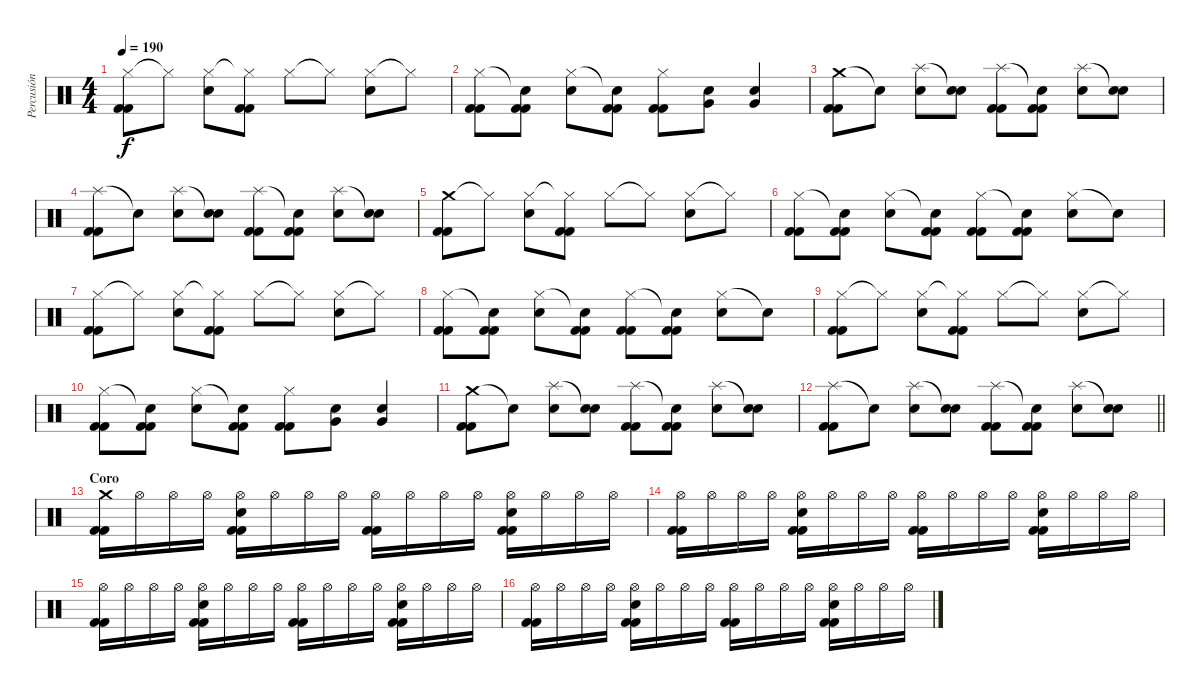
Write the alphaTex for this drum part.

\track ("Percusión" "Percusión") {instrument percussion}
\staff {score}
\articulation defaults
\ts (4 4)
\tempo 190
\clef neutral
\ks c
("Hi-Hat (closed)" "Kick (hit) 2" "Kick (hit) 2").8{dy f} "Hi-Hat (closed)"{t}.8 ("Hi-Hat (closed)" "Electric Snare (hit)").8 ("Hi-Hat (closed)"{t} "Kick (hit) 2" "Kick (hit) 2").8 "Hi-Hat (closed)".8 "Hi-Hat (closed)"{t}.8 ("Hi-Hat (closed)" "Electric Snare (hit)").8 "Hi-Hat (closed)"{t}.8 |
("Hi-Hat (closed)" "Kick (hit) 2" "Kick (hit) 2").8 ("Snare (hit)"{t} "Kick (hit) 2" "Kick (hit) 2").8 ("Hi-Hat (closed)" "Electric Snare (hit)").8 ("Snare (hit)"{t} "Kick (hit) 2" "Kick (hit) 2").8 ("Hi-Hat (closed)" "Kick (hit) 2" "Kick (hit) 2").8 ("Very Low Tom (hit)" "Electric Snare (hit)").8 ("Very Low Tom (hit)" "Electric Snare (hit)").4 |
("Crash medium (hit)" "Kick (hit) 2" "Kick (hit) 2").8 "Snare (hit)"{t}.8 ("Splash (hit)" "Electric Snare (hit)").8 ("Snare (hit)"{t} "Electric Snare (hit)").8 ("Splash (hit)" "Kick (hit) 2" "Kick (hit) 2").8 ("Snare (hit)"{t} "Kick (hit) 2" "Kick (hit) 2").8 ("Splash (hit)" "Electric Snare (hit)").8 ("Snare (hit)"{t} "Electric Snare (hit)").8 |
("Splash (hit)" "Kick (hit) 2" "Kick (hit) 2").8 "Snare (hit)"{t}.8 ("Splash (hit)" "Electric Snare (hit)").8 ("Snare (hit)"{t} "Electric Snare (hit)").8 ("Splash (hit)" "Kick (hit) 2" "Kick (hit) 2").8 ("Snare (hit)"{t} "Kick (hit) 2" "Kick (hit) 2").8 ("Splash (hit)" "Electric Snare (hit)").8 ("Snare (hit)"{t} "Electric Snare (hit)").8 |
("Crash medium (hit)" "Kick (hit) 2" "Kick (hit) 2").8 "Hi-Hat (closed)"{t}.8 ("Hi-Hat (closed)" "Electric Snare (hit)").8 ("Hi-Hat (closed)"{t} "Kick (hit) 2" "Kick (hit) 2").8 "Hi-Hat (closed)".8 "Hi-Hat (closed)"{t}.8 ("Hi-Hat (closed)" "Electric Snare (hit)").8 "Hi-Hat (closed)"{t}.8 |
("Hi-Hat (closed)" "Kick (hit) 2" "Kick (hit) 2").8 ("Snare (hit)"{t} "Kick (hit) 2" "Kick (hit) 2").8 ("Hi-Hat (closed)" "Electric Snare (hit)").8 ("Snare (hit)"{t} "Kick (hit) 2" "Kick (hit) 2").8 ("Hi-Hat (closed)" "Kick (hit) 2" "Kick (hit) 2").8 ("Snare (hit)"{t} "Kick (hit) 2" "Kick (hit) 2").8 ("Hi-Hat (closed)" "Electric Snare (hit)").8 "Snare (hit)"{t}.8 |
("Hi-Hat (closed)" "Kick (hit) 2" "Kick (hit) 2").8 "Hi-Hat (closed)"{t}.8 ("Hi-Hat (closed)" "Electric Snare (hit)").8 ("Hi-Hat (closed)"{t} "Kick (hit) 2" "Kick (hit) 2").8 "Hi-Hat (closed)".8 "Hi-Hat (closed)"{t}.8 ("Hi-Hat (closed)" "Electric Snare (hit)").8 "Hi-Hat (closed)"{t}.8 |
("Hi-Hat (closed)" "Kick (hit) 2" "Kick (hit) 2").8 ("Snare (hit)"{t} "Kick (hit) 2" "Kick (hit) 2").8 ("Hi-Hat (closed)" "Electric Snare (hit)").8 ("Snare (hit)"{t} "Kick (hit) 2" "Kick (hit) 2").8 ("Hi-Hat (closed)" "Kick (hit) 2" "Kick (hit) 2").8 ("Snare (hit)"{t} "Kick (hit) 2" "Kick (hit) 2").8 ("Hi-Hat (closed)" "Electric Snare (hit)").8 "Snare (hit)"{t}.8 |
("Hi-Hat (closed)" "Kick (hit) 2" "Kick (hit) 2").8 "Hi-Hat (closed)"{t}.8 ("Hi-Hat (closed)" "Electric Snare (hit)").8 ("Hi-Hat (closed)"{t} "Kick (hit) 2" "Kick (hit) 2").8 "Hi-Hat (closed)".8 "Hi-Hat (closed)"{t}.8 ("Hi-Hat (closed)" "Electric Snare (hit)").8 "Hi-Hat (closed)"{t}.8 |
("Hi-Hat (closed)" "Kick (hit) 2" "Kick (hit) 2").8 ("Snare (hit)"{t} "Kick (hit) 2" "Kick (hit) 2").8 ("Hi-Hat (closed)" "Electric Snare (hit)").8 ("Snare (hit)"{t} "Kick (hit) 2" "Kick (hit) 2").8 ("Hi-Hat (closed)" "Kick (hit) 2" "Kick (hit) 2").8 ("Very Low Tom (hit)" "Electric Snare (hit)").8 ("Very Low Tom (hit)" "Electric Snare (hit)").4 |
("Crash medium (hit)" "Kick (hit) 2" "Kick (hit) 2").8 "Snare (hit)"{t}.8 ("Splash (hit)" "Electric Snare (hit)").8 ("Snare (hit)"{t} "Electric Snare (hit)").8 ("Splash (hit)" "Kick (hit) 2" "Kick (hit) 2").8 ("Snare (hit)"{t} "Kick (hit) 2" "Kick (hit) 2").8 ("Splash (hit)" "Electric Snare (hit)").8 ("Snare (hit)"{t} "Electric Snare (hit)").8 |
\barLineRight lightlight
("Splash (hit)" "Kick (hit) 2" "Kick (hit) 2").8 "Snare (hit)"{t}.8 ("Splash (hit)" "Electric Snare (hit)").8 ("Snare (hit)"{t} "Electric Snare (hit)").8 ("Splash (hit)" "Kick (hit) 2" "Kick (hit) 2").8 ("Snare (hit)"{t} "Kick (hit) 2" "Kick (hit) 2").8 ("Splash (hit)" "Electric Snare (hit)").8 ("Snare (hit)"{t} "Electric Snare (hit)").8 |
\section ("" "Coro")
("Crash medium (hit)" "Kick (hit) 2" "Kick (hit) 2").16 "Hi-Hat (open)".16 "Hi-Hat (open)".16 "Hi-Hat (open)".16 ("Hi-Hat (open)" "Electric Snare (hit)" "Kick (hit) 2" "Kick (hit) 2").16 "Hi-Hat (open)".16 "Hi-Hat (open)".16 "Hi-Hat (open)".16 ("Hi-Hat (open)" "Kick (hit) 2" "Kick (hit) 2").16 "Hi-Hat (open)".16 "Hi-Hat (open)".16 "Hi-Hat (open)".16 ("Hi-Hat (open)" "Electric Snare (hit)" "Kick (hit) 2" "Kick (hit) 2").16 "Hi-Hat (open)".16 "Hi-Hat (open)".16 "Hi-Hat (open)".16 |
("Hi-Hat (open)" "Kick (hit) 2" "Kick (hit) 2").16 "Hi-Hat (open)".16 "Hi-Hat (open)".16 "Hi-Hat (open)".16 ("Hi-Hat (open)" "Electric Snare (hit)" "Kick (hit) 2" "Kick (hit) 2").16 "Hi-Hat (open)".16 "Hi-Hat (open)".16 "Hi-Hat (open)".16 ("Hi-Hat (open)" "Kick (hit) 2" "Kick (hit) 2").16 "Hi-Hat (open)".16 "Hi-Hat (open)".16 "Hi-Hat (open)".16 ("Hi-Hat (open)" "Electric Snare (hit)" "Kick (hit) 2" "Kick (hit) 2").16 "Hi-Hat (open)".16 "Hi-Hat (open)".16 "Hi-Hat (open)".16 |
("Hi-Hat (open)" "Kick (hit) 2" "Kick (hit) 2").16 "Hi-Hat (open)".16 "Hi-Hat (open)".16 "Hi-Hat (open)".16 ("Hi-Hat (open)" "Electric Snare (hit)" "Kick (hit) 2" "Kick (hit) 2").16 "Hi-Hat (open)".16 "Hi-Hat (open)".16 "Hi-Hat (open)".16 ("Hi-Hat (open)" "Kick (hit) 2" "Kick (hit) 2").16 "Hi-Hat (open)".16 "Hi-Hat (open)".16 "Hi-Hat (open)".16 ("Hi-Hat (open)" "Electric Snare (hit)" "Kick (hit) 2" "Kick (hit) 2").16 "Hi-Hat (open)".16 "Hi-Hat (open)".16 "Hi-Hat (open)".16 |
("Hi-Hat (open)" "Kick (hit) 2" "Kick (hit) 2").16 "Hi-Hat (open)".16 "Hi-Hat (open)".16 "Hi-Hat (open)".16 ("Hi-Hat (open)" "Electric Snare (hit)" "Kick (hit) 2" "Kick (hit) 2").16 "Hi-Hat (open)".16 "Hi-Hat (open)".16 "Hi-Hat (open)".16 ("Hi-Hat (open)" "Kick (hit) 2" "Kick (hit) 2").16 "Hi-Hat (open)".16 "Hi-Hat (open)".16 "Hi-Hat (open)".16 ("Hi-Hat (open)" "Electric Snare (hit)" "Kick (hit) 2" "Kick (hit) 2").16 "Hi-Hat (open)".16 "Hi-Hat (open)".16 "Hi-Hat (open)".16
